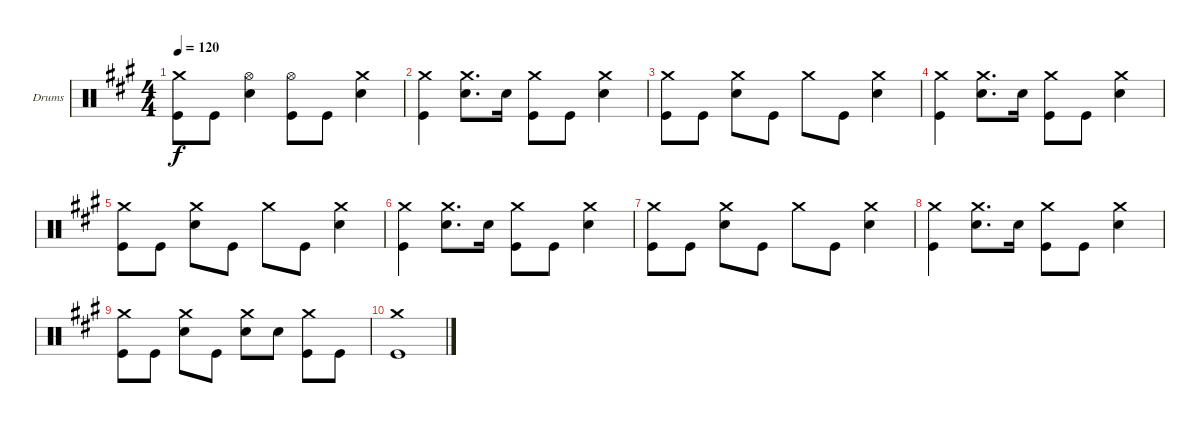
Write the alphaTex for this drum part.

\defaultSystemsLayout 4
\bracketExtendMode groupsimilarinstruments
\firstSystemTrackNameOrientation horizontal
\otherSystemsTrackNameOrientation horizontal
\track ("Drum" "Drums") {instrument percussion}
\staff {score}
\articulation defaults
\ts (4 4)
\tempo 120
\clef neutral
\scale
1.05801
\ks a
("Crash medium (hit)" "Kick (hit)").8{dy f} "Kick (hit)".8 ("Hi-Hat (open)" "Snare (hit) 2").4 ("Hi-Hat (open)" "Kick (hit)").8 "Kick (hit)".8 ("Crash medium (hit)" "Snare (hit) 2").4 |
\scale
0.941992 ("Crash medium (hit)" "Kick (hit)").4 ("Crash medium (hit)" "Snare (hit) 2").8{d} "Snare (hit) 2".16 ("Crash medium (hit)" "Kick (hit)").8 "Kick (hit)".8 ("Crash medium (hit)" "Snare (hit) 2").4 |
\scale
1.05801 ("Crash medium (hit)" "Kick (hit)").8 "Kick (hit)".8 ("Crash medium (hit)" "Snare (hit) 2").8 "Kick (hit)".8 "Crash medium (hit)".8 "Kick (hit)".8 ("Crash medium (hit)" "Snare (hit) 2").4 |
\scale
0.941992 ("Crash medium (hit)" "Kick (hit)").4 ("Crash medium (hit)" "Snare (hit) 2").8{d} "Snare (hit) 2".16 ("Crash medium (hit)" "Kick (hit)").8 "Kick (hit)".8 ("Crash medium (hit)" "Snare (hit) 2").4 |
\scale
1.05801 ("Crash medium (hit)" "Kick (hit)").8 "Kick (hit)".8 ("Crash medium (hit)" "Snare (hit) 2").8 "Kick (hit)".8 "Crash medium (hit)".8 "Kick (hit)".8 ("Crash medium (hit)" "Snare (hit) 2").4 |
\scale
0.941992 ("Crash medium (hit)" "Kick (hit)").4 ("Crash medium (hit)" "Snare (hit) 2").8{d} "Snare (hit) 2".16 ("Crash medium (hit)" "Kick (hit)").8 "Kick (hit)".8 ("Crash medium (hit)" "Snare (hit) 2").4 |
\scale
1.05801 ("Crash medium (hit)" "Kick (hit)").8 "Kick (hit)".8 ("Crash medium (hit)" "Snare (hit) 2").8 "Kick (hit)".8 "Crash medium (hit)".8 "Kick (hit)".8 ("Crash medium (hit)" "Snare (hit) 2").4 |
\scale
0.941992 ("Crash medium (hit)" "Kick (hit)").4 ("Crash medium (hit)" "Snare (hit) 2").8{d} "Snare (hit) 2".16 ("Crash medium (hit)" "Kick (hit)").8 "Kick (hit)".8 ("Crash medium (hit)" "Snare (hit) 2").4 |
\scale
1.05801 ("Crash medium (hit)" "Kick (hit)").8 "Kick (hit)".8 ("Crash medium (hit)" "Snare (hit) 2").8 "Kick (hit)".8 ("Crash medium (hit)" "Snare (hit) 2").8 "Snare (hit) 2".8 ("Crash medium (hit)" "Kick (hit)").8 "Kick (hit)".8 |
\scale
0.941992 ("Crash medium (hit)" "Kick (hit)").1
